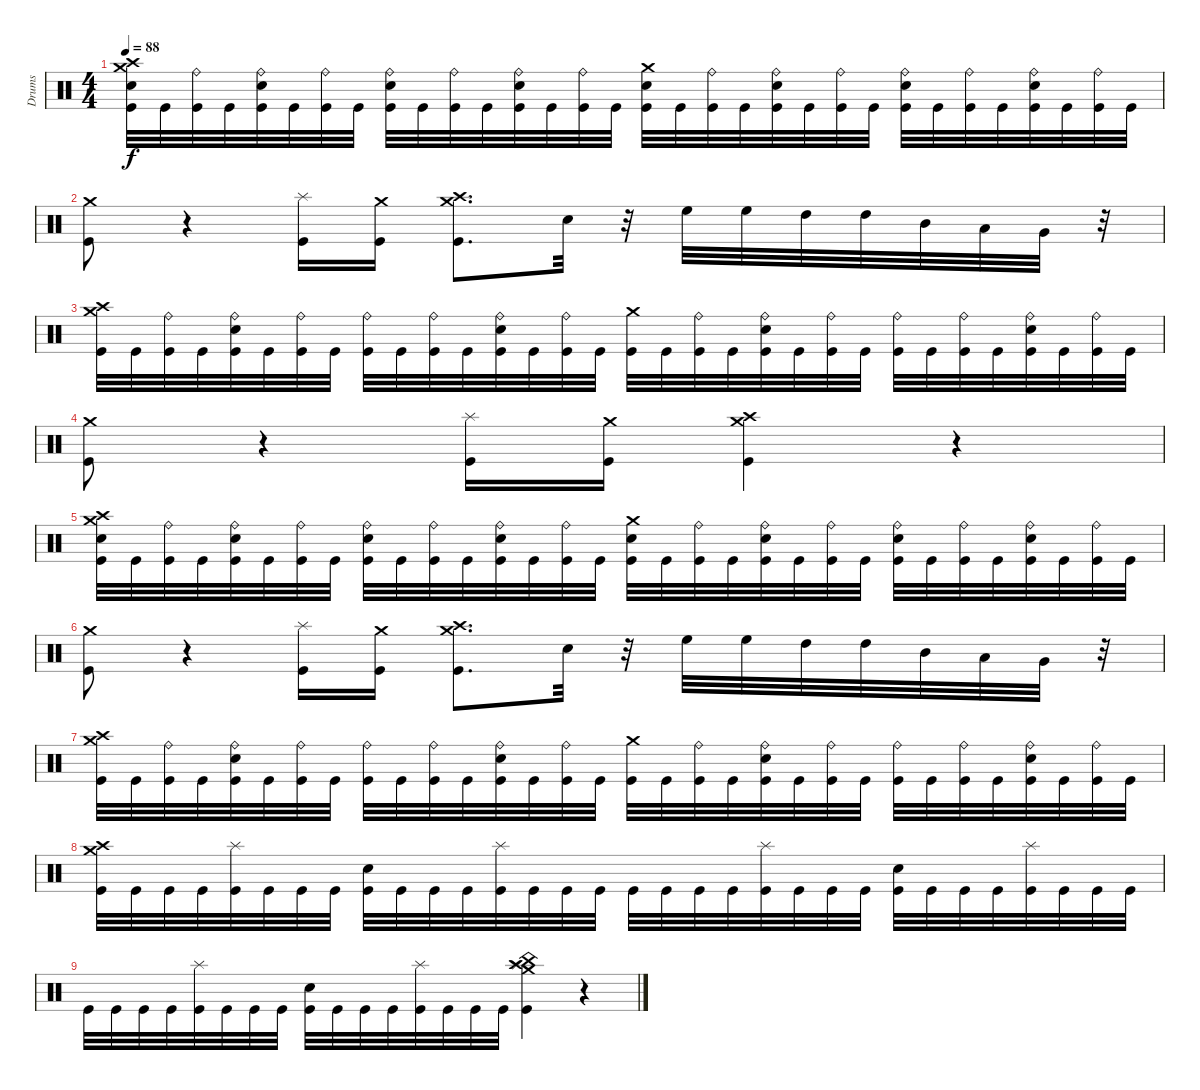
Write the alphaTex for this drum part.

\track ("Drums" "Drums") {instrument percussion}
\staff {score}
\articulation defaults
\ts (4 4)
\tempo 88
\clef neutral
\ks c
("Snare (hit) 2" "Crash high (hit)" "Crash medium (hit)" "Kick (hit)").32{dy f} "Kick (hit)".32 ("Ride (bell)" "Kick (hit)").32 "Kick (hit)".32 ("Snare (hit) 2" "Ride (bell)" "Kick (hit)").32 "Kick (hit)".32 ("Ride (bell)" "Kick (hit)").32 "Kick (hit)".32 ("Snare (hit) 2" "Ride (bell)" "Kick (hit)").32 "Kick (hit)".32 ("Ride (bell)" "Kick (hit)").32 "Kick (hit)".32 ("Snare (hit) 2" "Ride (bell)" "Kick (hit)").32 "Kick (hit)".32 ("Ride (bell)" "Kick (hit)").32 "Kick (hit)".32 ("Snare (hit) 2" "Crash medium (hit)" "Kick (hit)").32 "Kick (hit)".32 ("Ride (bell)" "Kick (hit)").32 "Kick (hit)".32 ("Snare (hit) 2" "Ride (bell)" "Kick (hit)").32 "Kick (hit)".32 ("Ride (bell)" "Kick (hit)").32 "Kick (hit)".32 ("Snare (hit) 2" "Ride (bell)" "Kick (hit)").32 "Kick (hit)".32 ("Ride (bell)" "Kick (hit)").32 "Kick (hit)".32 ("Snare (hit) 2" "Ride (bell)" "Kick (hit)").32 "Kick (hit)".32 ("Ride (bell)" "Kick (hit)").32 "Kick (hit)".32 |
("Kick (hit)" "Crash medium (hit)").8 r.4 ("Splash (hit)" "Kick (hit)").16 ("Crash medium (hit)" "Kick (hit)").16 ("Crash medium (hit)" "Crash high (hit)" "Kick (hit)").8{d} "Snare (hit) 2".32 r.32 "High Floor Tom (hit)".32 "High Floor Tom (hit)".32 "High Tom (hit)".32 "High Tom (hit)".32 "Mid Tom (hit)".32 "Low Tom (hit)".32 "Very Low Tom (hit)".32 r.32 |
("Crash high (hit)" "Crash medium (hit)" "Kick (hit)").32 "Kick (hit)".32 ("Ride (bell)" "Kick (hit)").32 "Kick (hit)".32 ("Snare (hit) 2" "Ride (bell)" "Kick (hit)").32 "Kick (hit)".32 ("Ride (bell)" "Kick (hit)").32 "Kick (hit)".32 ("Ride (bell)" "Kick (hit)").32 "Kick (hit)".32 ("Ride (bell)" "Kick (hit)").32 "Kick (hit)".32 ("Snare (hit) 2" "Ride (bell)" "Kick (hit)").32 "Kick (hit)".32 ("Ride (bell)" "Kick (hit)").32 "Kick (hit)".32 ("Crash medium (hit)" "Kick (hit)").32 "Kick (hit)".32 ("Ride (bell)" "Kick (hit)").32 "Kick (hit)".32 ("Snare (hit) 2" "Ride (bell)" "Kick (hit)").32 "Kick (hit)".32 ("Ride (bell)" "Kick (hit)").32 "Kick (hit)".32 ("Ride (bell)" "Kick (hit)").32 "Kick (hit)".32 ("Ride (bell)" "Kick (hit)").32 "Kick (hit)".32 ("Snare (hit) 2" "Ride (bell)" "Kick (hit)").32 "Kick (hit)".32 ("Ride (bell)" "Kick (hit)").32 "Kick (hit)".32 |
("Kick (hit)" "Crash medium (hit)").8 r.4 ("Splash (hit)" "Kick (hit)").16 ("Crash medium (hit)" "Kick (hit)").16 ("Crash medium (hit)" "Crash high (hit)" "Kick (hit)").4 r.4 |
("Snare (hit) 2" "Crash high (hit)" "Crash medium (hit)" "Kick (hit)").32 "Kick (hit)".32 ("Ride (bell)" "Kick (hit)").32 "Kick (hit)".32 ("Snare (hit) 2" "Ride (bell)" "Kick (hit)").32 "Kick (hit)".32 ("Ride (bell)" "Kick (hit)").32 "Kick (hit)".32 ("Snare (hit) 2" "Ride (bell)" "Kick (hit)").32 "Kick (hit)".32 ("Ride (bell)" "Kick (hit)").32 "Kick (hit)".32 ("Snare (hit) 2" "Ride (bell)" "Kick (hit)").32 "Kick (hit)".32 ("Ride (bell)" "Kick (hit)").32 "Kick (hit)".32 ("Snare (hit) 2" "Crash medium (hit)" "Kick (hit)").32 "Kick (hit)".32 ("Ride (bell)" "Kick (hit)").32 "Kick (hit)".32 ("Snare (hit) 2" "Ride (bell)" "Kick (hit)").32 "Kick (hit)".32 ("Ride (bell)" "Kick (hit)").32 "Kick (hit)".32 ("Snare (hit) 2" "Ride (bell)" "Kick (hit)").32 "Kick (hit)".32 ("Ride (bell)" "Kick (hit)").32 "Kick (hit)".32 ("Snare (hit) 2" "Ride (bell)" "Kick (hit)").32 "Kick (hit)".32 ("Ride (bell)" "Kick (hit)").32 "Kick (hit)".32 |
("Kick (hit)" "Crash medium (hit)").8 r.4 ("Splash (hit)" "Kick (hit)").16 ("Crash medium (hit)" "Kick (hit)").16 ("Crash medium (hit)" "Crash high (hit)" "Kick (hit)").8{d} "Snare (hit) 2".32 r.32 "High Floor Tom (hit)".32 "High Floor Tom (hit)".32 "High Tom (hit)".32 "High Tom (hit)".32 "Mid Tom (hit)".32 "Low Tom (hit)".32 "Very Low Tom (hit)".32 r.32 |
("Crash high (hit)" "Crash medium (hit)" "Kick (hit)").32 "Kick (hit)".32 ("Ride (bell)" "Kick (hit)").32 "Kick (hit)".32 ("Snare (hit) 2" "Ride (bell)" "Kick (hit)").32 "Kick (hit)".32 ("Ride (bell)" "Kick (hit)").32 "Kick (hit)".32 ("Ride (bell)" "Kick (hit)").32 "Kick (hit)".32 ("Ride (bell)" "Kick (hit)").32 "Kick (hit)".32 ("Snare (hit) 2" "Ride (bell)" "Kick (hit)").32 "Kick (hit)".32 ("Ride (bell)" "Kick (hit)").32 "Kick (hit)".32 ("Crash medium (hit)" "Kick (hit)").32 "Kick (hit)".32 ("Ride (bell)" "Kick (hit)").32 "Kick (hit)".32 ("Snare (hit) 2" "Ride (bell)" "Kick (hit)").32 "Kick (hit)".32 ("Ride (bell)" "Kick (hit)").32 "Kick (hit)".32 ("Ride (bell)" "Kick (hit)").32 "Kick (hit)".32 ("Ride (bell)" "Kick (hit)").32 "Kick (hit)".32 ("Snare (hit) 2" "Ride (bell)" "Kick (hit)").32 "Kick (hit)".32 ("Ride (bell)" "Kick (hit)").32 "Kick (hit)".32 |
("Crash medium (hit)" "Crash high (hit)" "Kick (hit)").32 "Kick (hit)".32 "Kick (hit)".32 "Kick (hit)".32 ("Splash (hit)" "Kick (hit)").32 "Kick (hit)".32 "Kick (hit)".32 "Kick (hit)".32 ("Snare (hit) 2" "Kick (hit)").32 "Kick (hit)".32 "Kick (hit)".32 "Kick (hit)".32 ("Splash (hit)" "Kick (hit)").32 "Kick (hit)".32 "Kick (hit)".32 "Kick (hit)".32 "Kick (hit)".32 "Kick (hit)".32 "Kick (hit)".32 "Kick (hit)".32 ("Splash (hit)" "Kick (hit)").32 "Kick (hit)".32 "Kick (hit)".32 "Kick (hit)".32 ("Snare (hit) 2" "Kick (hit)").32 "Kick (hit)".32 "Kick (hit)".32 "Kick (hit)".32 ("Splash (hit)" "Kick (hit)").32 "Kick (hit)".32 "Kick (hit)".32 "Kick (hit)".32 |
"Kick (hit)".32 "Kick (hit)".32 "Kick (hit)".32 "Kick (hit)".32 ("Splash (hit)" "Kick (hit)").32 "Kick (hit)".32 "Kick (hit)".32 "Kick (hit)".32 ("Snare (hit) 2" "Kick (hit)").32 "Kick (hit)".32 "Kick (hit)".32 "Kick (hit)".32 ("Splash (hit)" "Kick (hit)").32 "Kick (hit)".32 "Kick (hit)".32 "Kick (hit)".32 ("Kick (hit)" "China (hit)" "Splash (hit)" "Crash high (hit)" "Crash medium (hit)").4 r.4
